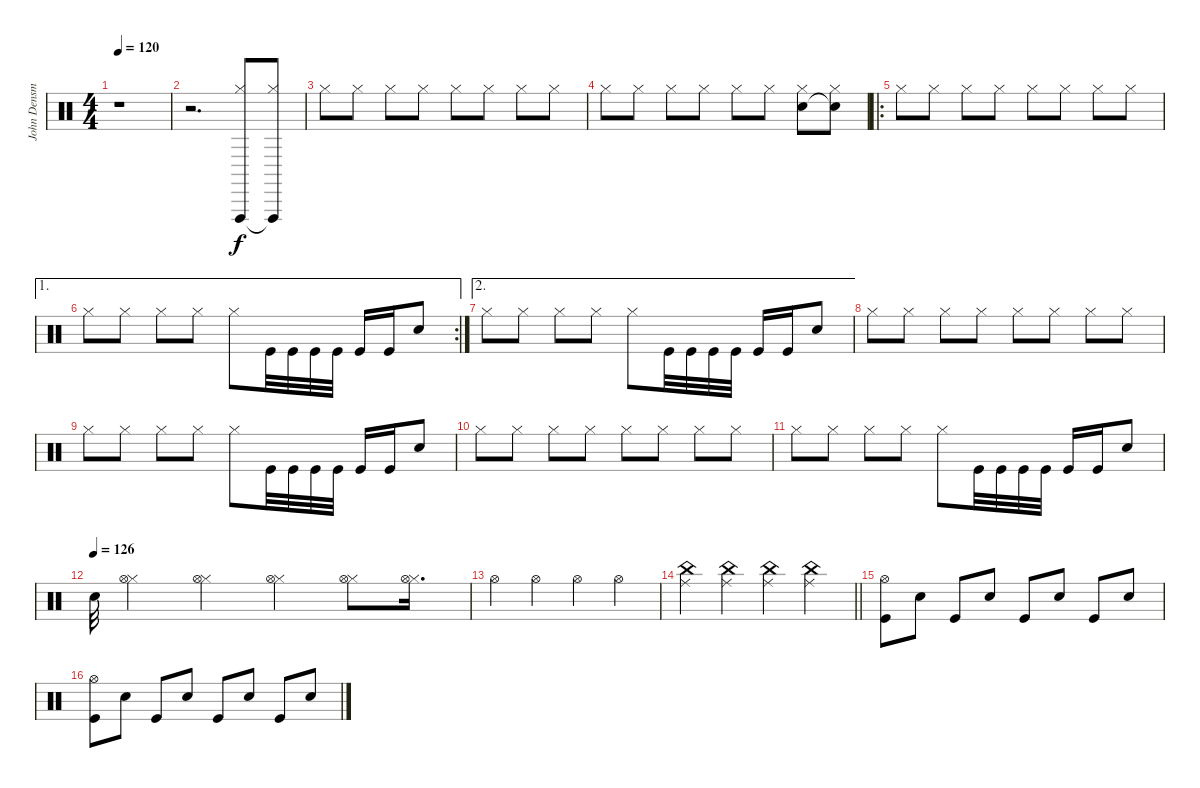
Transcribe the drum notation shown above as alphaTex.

\track ("John Densmore" "John Densm") {instrument percussion}
\staff {score}
\articulation defaults
\ts (4 4)
\tempo 120
\clef neutral
\ks c
r.1{dy f} |
r.2{d} ("Vibraslap (hit)" "Hi-Hat (closed)").8 ("Vibraslap (hit)"{t} "Hi-Hat (closed)").8 |
"Hi-Hat (closed)".8 "Hi-Hat (closed)".8 "Hi-Hat (closed)".8 "Hi-Hat (closed)".8 "Hi-Hat (closed)".8 "Hi-Hat (closed)".8 "Hi-Hat (closed)".8 "Hi-Hat (closed)".8 |
"Hi-Hat (closed)".8 "Hi-Hat (closed)".8 "Hi-Hat (closed)".8 "Hi-Hat (closed)".8 "Hi-Hat (closed)".8 "Hi-Hat (closed)".8 ("Hi-Hat (closed)" "Electric Snare (hit)").8 ("Hi-Hat (closed)" "Electric Snare (hit)"{t}).8 |
\ro "Hi-Hat (closed)".8 "Hi-Hat (closed)".8 "Hi-Hat (closed)".8 "Hi-Hat (closed)".8 "Hi-Hat (closed)".8 "Hi-Hat (closed)".8 "Hi-Hat (closed)".8 "Hi-Hat (closed)".8
|
\ae 1
\rc 2 "Hi-Hat (closed)".8 "Hi-Hat (closed)".8 "Hi-Hat (closed)".8 "Hi-Hat (closed)".8 "Hi-Hat (closed)".8 "Kick (hit)".32 "Kick (hit)".32 "Kick (hit)".32 "Kick (hit)".32 "Kick (hit)".16 "Kick (hit)".16 "Snare (hit) 2".8
|
\ae 2 "Hi-Hat (closed)".8 "Hi-Hat (closed)".8 "Hi-Hat (closed)".8 "Hi-Hat (closed)".8 "Hi-Hat (closed)".8 "Kick (hit)".32 "Kick (hit)".32 "Kick (hit)".32 "Kick (hit)".32 "Kick (hit)".16 "Kick (hit)".16 "Snare (hit) 2".8
|
"Hi-Hat (closed)".8 "Hi-Hat (closed)".8 "Hi-Hat (closed)".8 "Hi-Hat (closed)".8 "Hi-Hat (closed)".8 "Hi-Hat (closed)".8 "Hi-Hat (closed)".8 "Hi-Hat (closed)".8 |
"Hi-Hat (closed)".8 "Hi-Hat (closed)".8 "Hi-Hat (closed)".8 "Hi-Hat (closed)".8 "Hi-Hat (closed)".8 "Kick (hit)".32 "Kick (hit)".32 "Kick (hit)".32 "Kick (hit)".32 "Kick (hit)".16 "Kick (hit)".16 "Snare (hit) 2".8 |
"Hi-Hat (closed)".8 "Hi-Hat (closed)".8 "Hi-Hat (closed)".8 "Hi-Hat (closed)".8 "Hi-Hat (closed)".8 "Hi-Hat (closed)".8 "Hi-Hat (closed)".8 "Hi-Hat (closed)".8 |
"Hi-Hat (closed)".8 "Hi-Hat (closed)".8 "Hi-Hat (closed)".8 "Hi-Hat (closed)".8 "Hi-Hat (closed)".8 "Kick (hit)".32 "Kick (hit)".32 "Kick (hit)".32 "Kick (hit)".32 "Kick (hit)".16 "Kick (hit)".16 "Snare (hit) 2".8 |
\tempo (126)
"Electric Snare (hit)".32 ("Hi-Hat (closed)" "Hi-Hat (open)").4 ("Hi-Hat (closed)" "Hi-Hat (open)").4 ("Hi-Hat (closed)" "Hi-Hat (open)").4 ("Hi-Hat (closed)" "Hi-Hat (open)").8 ("Hi-Hat (closed)" "Hi-Hat (open)").16{d} |
"Hi-Hat (open)".4 "Hi-Hat (open)".4 "Hi-Hat (open)".4 "Hi-Hat (open)".4 |
\barLineRight lightlight
("China (hit)" "Ride (middle)").4 ("China (hit)" "Ride (middle)").4 ("China (hit)" "Ride (middle)").4 ("China (hit)" "Ride (middle)").4 |
("Kick (hit)" "Hi-Hat (open)").8 "Snare (hit) 2".8 "Kick (hit)".8 "Snare (hit) 2".8 "Kick (hit)".8 "Snare (hit) 2".8 "Kick (hit)".8 "Snare (hit) 2".8 |
("Kick (hit)" "Hi-Hat (open)").8 "Snare (hit) 2".8 "Kick (hit)".8 "Snare (hit) 2".8 "Kick (hit)".8 "Snare (hit) 2".8 "Kick (hit)".8 "Snare (hit) 2".8
